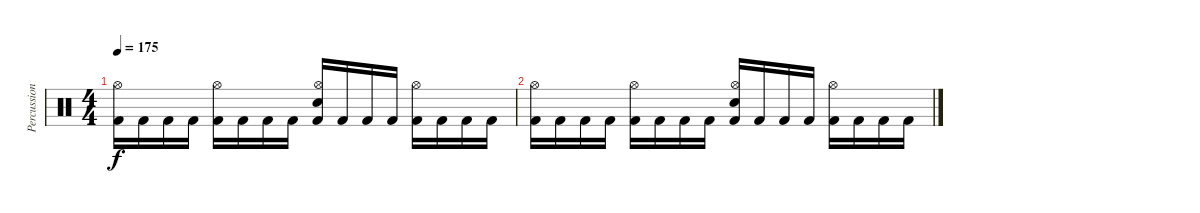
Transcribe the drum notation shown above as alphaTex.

\track ("Percussion" "Percussion") {instrument percussion}
\staff {score}
\articulation defaults
\ts (4 4)
\tempo 175
\clef neutral
\ks c
("Kick (hit) 2" "Hi-Hat (open)").16{dy f} "Kick (hit) 2".16 "Kick (hit) 2".16 "Kick (hit) 2".16 ("Kick (hit) 2" "Hi-Hat (open)").16 "Kick (hit) 2".16 "Kick (hit) 2".16 "Kick (hit) 2".16 ("Kick (hit) 2" "Electric Snare (hit)" "Hi-Hat (open)").16 "Kick (hit) 2".16 "Kick (hit) 2".16 "Kick (hit) 2".16 ("Kick (hit) 2" "Hi-Hat (open)").16 "Kick (hit) 2".16 "Kick (hit) 2".16 "Kick (hit) 2".16 |
("Kick (hit) 2" "Hi-Hat (open)").16 "Kick (hit) 2".16 "Kick (hit) 2".16 "Kick (hit) 2".16 ("Kick (hit) 2" "Hi-Hat (open)").16 "Kick (hit) 2".16 "Kick (hit) 2".16 "Kick (hit) 2".16 ("Kick (hit) 2" "Electric Snare (hit)" "Hi-Hat (open)").16 "Kick (hit) 2".16 "Kick (hit) 2".16 "Kick (hit) 2".16 ("Kick (hit) 2" "Hi-Hat (open)").16 "Kick (hit) 2".16 "Kick (hit) 2".16 "Kick (hit) 2".16
